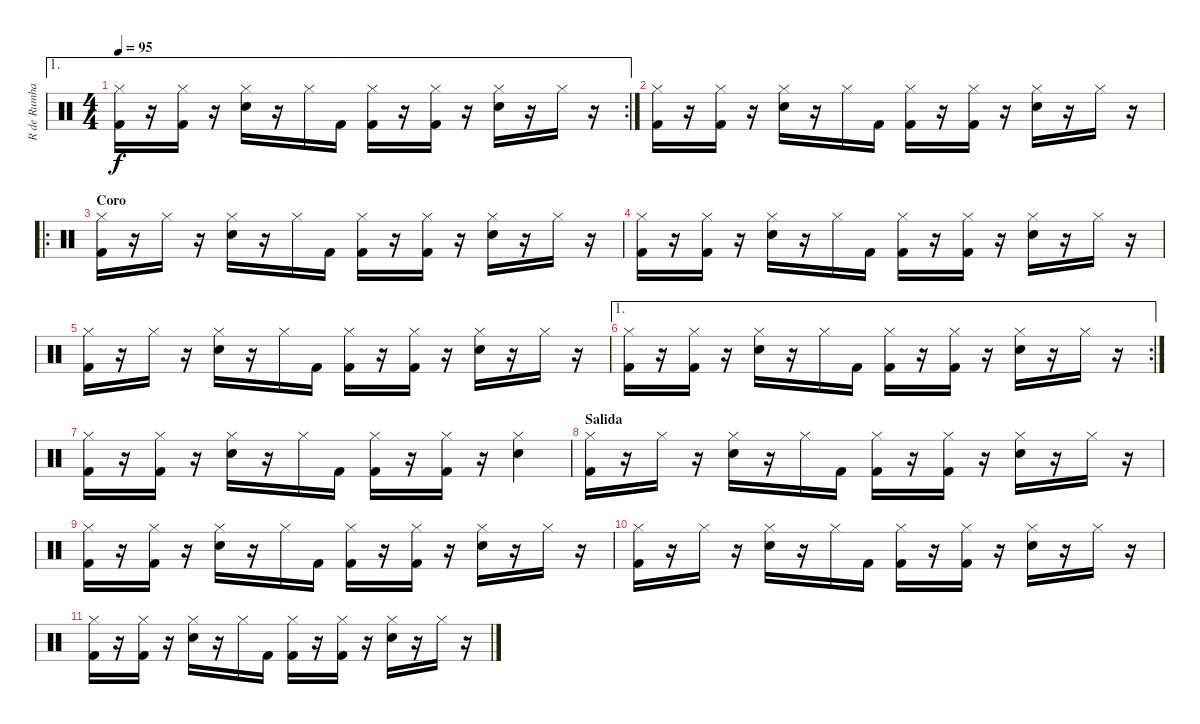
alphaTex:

\track ("R de Rumba" "R de Rumba") {instrument percussion}
\staff {score}
\articulation defaults
\ae 1
\rc 2
\ts (4 4)
\tempo 95
\clef neutral
\ks c
("Hi-Hat (closed)" "Kick (hit) 2").16{dy f} r.16 ("Hi-Hat (closed)" "Kick (hit) 2").16 r.16 ("Hi-Hat (closed)" "Snare (hit) 2").16 r.16 "Hi-Hat (closed)".16 "Kick (hit) 2".16 ("Hi-Hat (closed)" "Kick (hit) 2").16 r.16 ("Hi-Hat (closed)" "Kick (hit) 2").16 r.16 ("Hi-Hat (closed)" "Snare (hit) 2").16 r.16 "Hi-Hat (closed)".16 r.16 |
("Hi-Hat (closed)" "Kick (hit) 2").16 r.16 ("Hi-Hat (closed)" "Kick (hit) 2").16 r.16 ("Hi-Hat (closed)" "Snare (hit) 2").16 r.16 "Hi-Hat (closed)".16 "Kick (hit) 2".16 ("Hi-Hat (closed)" "Kick (hit) 2").16 r.16 ("Hi-Hat (closed)" "Kick (hit) 2").16 r.16 ("Hi-Hat (closed)" "Snare (hit) 2").16 r.16 "Hi-Hat (closed)".16 r.16 |
\ro
\section ("" "Coro")
("Hi-Hat (closed)" "Kick (hit) 2").16 r.16 "Hi-Hat (closed)".16 r.16 ("Hi-Hat (closed)" "Snare (hit) 2").16 r.16 "Hi-Hat (closed)".16 "Kick (hit) 2".16 ("Hi-Hat (closed)" "Kick (hit) 2").16 r.16 ("Hi-Hat (closed)" "Kick (hit) 2").16 r.16 ("Hi-Hat (closed)" "Snare (hit) 2").16 r.16 "Hi-Hat (closed)".16 r.16 |
("Hi-Hat (closed)" "Kick (hit) 2").16 r.16 ("Hi-Hat (closed)" "Kick (hit) 2").16 r.16 ("Hi-Hat (closed)" "Snare (hit) 2").16 r.16 "Hi-Hat (closed)".16 "Kick (hit) 2".16 ("Hi-Hat (closed)" "Kick (hit) 2").16 r.16 ("Hi-Hat (closed)" "Kick (hit) 2").16 r.16 ("Hi-Hat (closed)" "Snare (hit) 2").16 r.16 "Hi-Hat (closed)".16 r.16 |
("Hi-Hat (closed)" "Kick (hit) 2").16 r.16 "Hi-Hat (closed)".16 r.16 ("Hi-Hat (closed)" "Snare (hit) 2").16 r.16 "Hi-Hat (closed)".16 "Kick (hit) 2".16 ("Hi-Hat (closed)" "Kick (hit) 2").16 r.16 ("Hi-Hat (closed)" "Kick (hit) 2").16 r.16 ("Hi-Hat (closed)" "Snare (hit) 2").16 r.16 "Hi-Hat (closed)".16 r.16 |
\ae 1
\rc 2
("Hi-Hat (closed)" "Kick (hit) 2").16 r.16 ("Hi-Hat (closed)" "Kick (hit) 2").16 r.16 ("Hi-Hat (closed)" "Snare (hit) 2").16 r.16 "Hi-Hat (closed)".16 "Kick (hit) 2".16 ("Hi-Hat (closed)" "Kick (hit) 2").16 r.16 ("Hi-Hat (closed)" "Kick (hit) 2").16 r.16 ("Hi-Hat (closed)" "Snare (hit) 2").16 r.16 "Hi-Hat (closed)".16 r.16 |
("Hi-Hat (closed)" "Kick (hit) 2").16 r.16 ("Hi-Hat (closed)" "Kick (hit) 2").16 r.16 ("Hi-Hat (closed)" "Snare (hit) 2").16 r.16 "Hi-Hat (closed)".16 "Kick (hit) 2".16 ("Hi-Hat (closed)" "Kick (hit) 2").16 r.16 ("Hi-Hat (closed)" "Kick (hit) 2").16 r.16 ("Hi-Hat (closed)" "Snare (hit) 2").4 |
\section ("" "Salida")
("Hi-Hat (closed)" "Kick (hit) 2").16 r.16 "Hi-Hat (closed)".16 r.16 ("Hi-Hat (closed)" "Snare (hit) 2").16 r.16 "Hi-Hat (closed)".16 "Kick (hit) 2".16 ("Hi-Hat (closed)" "Kick (hit) 2").16 r.16 ("Hi-Hat (closed)" "Kick (hit) 2").16 r.16 ("Hi-Hat (closed)" "Snare (hit) 2").16 r.16 "Hi-Hat (closed)".16 r.16 |
("Hi-Hat (closed)" "Kick (hit) 2").16 r.16 ("Hi-Hat (closed)" "Kick (hit) 2").16 r.16 ("Hi-Hat (closed)" "Snare (hit) 2").16 r.16 "Hi-Hat (closed)".16 "Kick (hit) 2".16 ("Hi-Hat (closed)" "Kick (hit) 2").16 r.16 ("Hi-Hat (closed)" "Kick (hit) 2").16 r.16 ("Hi-Hat (closed)" "Snare (hit) 2").16 r.16 "Hi-Hat (closed)".16 r.16 |
("Hi-Hat (closed)" "Kick (hit) 2").16 r.16 "Hi-Hat (closed)".16 r.16 ("Hi-Hat (closed)" "Snare (hit) 2").16 r.16 "Hi-Hat (closed)".16 "Kick (hit) 2".16 ("Hi-Hat (closed)" "Kick (hit) 2").16 r.16 ("Hi-Hat (closed)" "Kick (hit) 2").16 r.16 ("Hi-Hat (closed)" "Snare (hit) 2").16 r.16 "Hi-Hat (closed)".16 r.16 |
("Hi-Hat (closed)" "Kick (hit) 2").16 r.16 ("Hi-Hat (closed)" "Kick (hit) 2").16 r.16 ("Hi-Hat (closed)" "Snare (hit) 2").16 r.16 "Hi-Hat (closed)".16 "Kick (hit) 2".16 ("Hi-Hat (closed)" "Kick (hit) 2").16 r.16 ("Hi-Hat (closed)" "Kick (hit) 2").16 r.16 ("Hi-Hat (closed)" "Snare (hit) 2").16 r.16 "Hi-Hat (closed)".16 r.16
